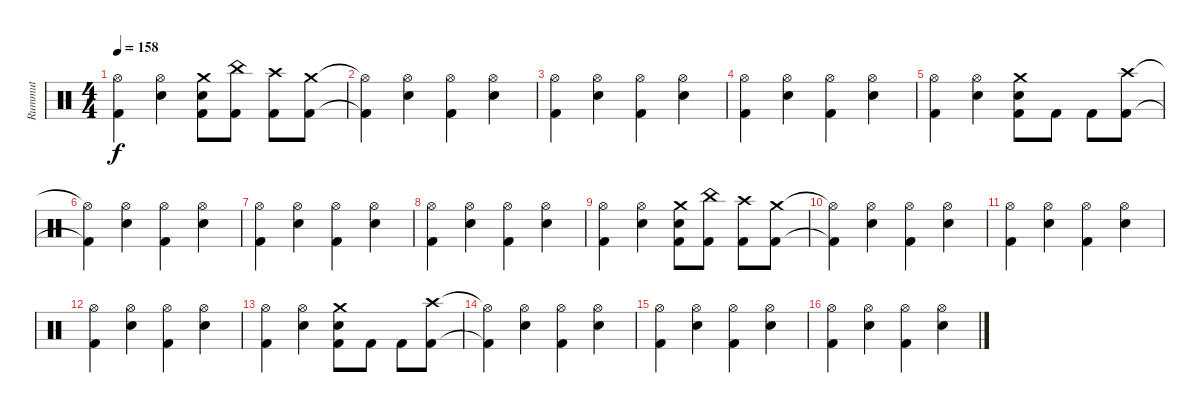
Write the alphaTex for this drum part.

\track ("Rummut" "Rummut") {instrument percussion}
\staff {score}
\articulation defaults
\ts (4 4)
\tempo 158
\clef neutral
\ks c
("Hi-Hat (open)" "Kick (hit) 2").4{dy f} ("Hi-Hat (open)" "Electric Snare (hit)").4 ("Crash medium (hit)" "Electric Snare (hit)" "Kick (hit) 2").8 ("China (hit)" "Kick (hit) 2").8 ("Crash high (hit)" "Kick (hit) 2").8 ("Crash medium (hit)" "Kick (hit) 2").8 |
("Hi-Hat (open)"{t} "Kick (hit) 2"{t}).4 ("Hi-Hat (open)" "Electric Snare (hit)").4 ("Hi-Hat (open)" "Kick (hit) 2").4 ("Hi-Hat (open)" "Electric Snare (hit)").4 |
("Hi-Hat (open)" "Kick (hit) 2").4 ("Hi-Hat (open)" "Electric Snare (hit)").4 ("Hi-Hat (open)" "Kick (hit) 2").4 ("Hi-Hat (open)" "Electric Snare (hit)").4 |
("Hi-Hat (open)" "Kick (hit) 2").4 ("Hi-Hat (open)" "Electric Snare (hit)").4 ("Hi-Hat (open)" "Kick (hit) 2").4 ("Hi-Hat (open)" "Electric Snare (hit)").4 |
("Hi-Hat (open)" "Kick (hit) 2").4 ("Hi-Hat (open)" "Electric Snare (hit)").4 ("Crash medium (hit)" "Electric Snare (hit)" "Kick (hit) 2").8 "Kick (hit) 2".8 "Kick (hit) 2".8 ("Crash high (hit)" "Kick (hit) 2").8 |
("Hi-Hat (open)"{t} "Kick (hit) 2"{t}).4 ("Hi-Hat (open)" "Electric Snare (hit)").4 ("Hi-Hat (open)" "Kick (hit) 2").4 ("Hi-Hat (open)" "Electric Snare (hit)").4 |
("Hi-Hat (open)" "Kick (hit) 2").4 ("Hi-Hat (open)" "Electric Snare (hit)").4 ("Hi-Hat (open)" "Kick (hit) 2").4 ("Hi-Hat (open)" "Electric Snare (hit)").4 |
("Hi-Hat (open)" "Kick (hit) 2").4 ("Hi-Hat (open)" "Electric Snare (hit)").4 ("Hi-Hat (open)" "Kick (hit) 2").4 ("Hi-Hat (open)" "Electric Snare (hit)").4 |
("Hi-Hat (open)" "Kick (hit) 2").4 ("Hi-Hat (open)" "Electric Snare (hit)").4 ("Crash medium (hit)" "Electric Snare (hit)" "Kick (hit) 2").8 ("China (hit)" "Kick (hit) 2").8 ("Crash high (hit)" "Kick (hit) 2").8 ("Crash medium (hit)" "Kick (hit) 2").8 |
("Hi-Hat (open)"{t} "Kick (hit) 2"{t}).4 ("Hi-Hat (open)" "Electric Snare (hit)").4 ("Hi-Hat (open)" "Kick (hit) 2").4 ("Hi-Hat (open)" "Electric Snare (hit)").4 |
("Hi-Hat (open)" "Kick (hit) 2").4 ("Hi-Hat (open)" "Electric Snare (hit)").4 ("Hi-Hat (open)" "Kick (hit) 2").4 ("Hi-Hat (open)" "Electric Snare (hit)").4 |
("Hi-Hat (open)" "Kick (hit) 2").4 ("Hi-Hat (open)" "Electric Snare (hit)").4 ("Hi-Hat (open)" "Kick (hit) 2").4 ("Hi-Hat (open)" "Electric Snare (hit)").4 |
("Hi-Hat (open)" "Kick (hit) 2").4 ("Hi-Hat (open)" "Electric Snare (hit)").4 ("Crash medium (hit)" "Electric Snare (hit)" "Kick (hit) 2").8 "Kick (hit) 2".8 "Kick (hit) 2".8 ("Crash high (hit)" "Kick (hit) 2").8 |
("Hi-Hat (open)"{t} "Kick (hit) 2"{t}).4 ("Hi-Hat (open)" "Electric Snare (hit)").4 ("Hi-Hat (open)" "Kick (hit) 2").4 ("Hi-Hat (open)" "Electric Snare (hit)").4 |
("Hi-Hat (open)" "Kick (hit) 2").4 ("Hi-Hat (open)" "Electric Snare (hit)").4 ("Hi-Hat (open)" "Kick (hit) 2").4 ("Hi-Hat (open)" "Electric Snare (hit)").4 |
("Hi-Hat (open)" "Kick (hit) 2").4 ("Hi-Hat (open)" "Electric Snare (hit)").4 ("Hi-Hat (open)" "Kick (hit) 2").4 ("Hi-Hat (open)" "Electric Snare (hit)").4
